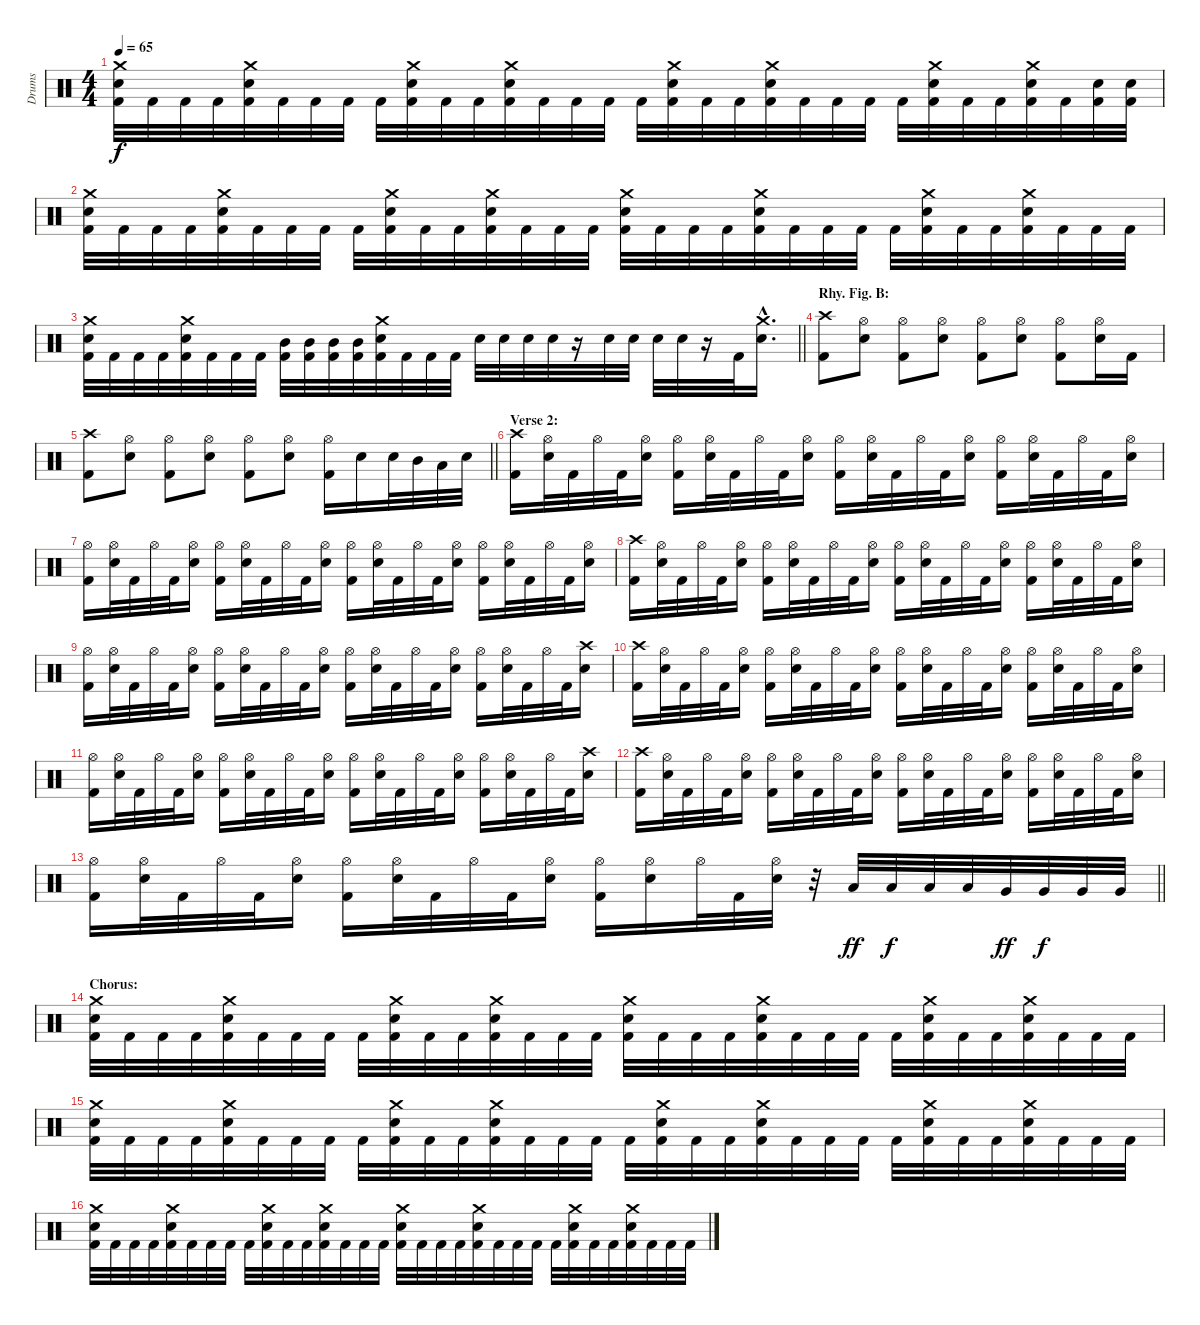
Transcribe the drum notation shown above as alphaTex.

\track ("Drums" "Drums") {instrument percussion}
\staff {score}
\articulation defaults
\ts (4 4)
\tempo 65
\clef neutral
\ks c
("Crash medium (hit)" "Snare (hit) 2" "Kick (hit) 2").32{dy f} "Kick (hit) 2".32 "Kick (hit) 2".32 "Kick (hit) 2".32 ("Crash medium (hit)" "Snare (hit) 2" "Kick (hit) 2").32 "Kick (hit) 2".32 "Kick (hit) 2".32 "Kick (hit) 2".32 "Kick (hit) 2".32 ("Crash medium (hit)" "Snare (hit) 2" "Kick (hit) 2").32 "Kick (hit) 2".32 "Kick (hit) 2".32 ("Crash medium (hit)" "Snare (hit) 2" "Kick (hit) 2").32 "Kick (hit) 2".32 "Kick (hit) 2".32 "Kick (hit) 2".32 "Kick (hit) 2".32 ("Crash medium (hit)" "Snare (hit) 2" "Kick (hit) 2").32 "Kick (hit) 2".32 "Kick (hit) 2".32 ("Crash medium (hit)" "Snare (hit) 2" "Kick (hit) 2").32 "Kick (hit) 2".32 "Kick (hit) 2".32 "Kick (hit) 2".32 "Kick (hit) 2".32 ("Crash medium (hit)" "Snare (hit) 2" "Kick (hit) 2").32 "Kick (hit) 2".32 "Kick (hit) 2".32 ("Crash medium (hit)" "Snare (hit) 2" "Kick (hit) 2").32 "Kick (hit) 2".32 ("Snare (hit) 2" "Kick (hit) 2").32 ("Snare (hit) 2" "Kick (hit) 2").32 |
("Crash medium (hit)" "Snare (hit) 2" "Kick (hit) 2").32 "Kick (hit) 2".32 "Kick (hit) 2".32 "Kick (hit) 2".32 ("Crash medium (hit)" "Snare (hit) 2" "Kick (hit) 2").32 "Kick (hit) 2".32 "Kick (hit) 2".32 "Kick (hit) 2".32 "Kick (hit) 2".32 ("Crash medium (hit)" "Snare (hit) 2" "Kick (hit) 2").32 "Kick (hit) 2".32 "Kick (hit) 2".32 ("Crash medium (hit)" "Snare (hit) 2" "Kick (hit) 2").32 "Kick (hit) 2".32 "Kick (hit) 2".32 "Kick (hit) 2".32 ("Crash medium (hit)" "Snare (hit) 2" "Kick (hit) 2").32 "Kick (hit) 2".32 "Kick (hit) 2".32 "Kick (hit) 2".32 ("Crash medium (hit)" "Snare (hit) 2" "Kick (hit) 2").32 "Kick (hit) 2".32 "Kick (hit) 2".32 "Kick (hit) 2".32 "Kick (hit) 2".32 ("Crash medium (hit)" "Snare (hit) 2" "Kick (hit) 2").32 "Kick (hit) 2".32 "Kick (hit) 2".32 ("Crash medium (hit)" "Snare (hit) 2" "Kick (hit) 2").32 "Kick (hit) 2".32 "Kick (hit) 2".32 "Kick (hit) 2".32 |
\barLineRight lightlight
("Crash medium (hit)" "Snare (hit) 2" "Kick (hit) 2").32 "Kick (hit) 2".32 "Kick (hit) 2".32 "Kick (hit) 2".32 ("Crash medium (hit)" "Snare (hit) 2" "Kick (hit) 2").32 "Kick (hit) 2".32 "Kick (hit) 2".32 "Kick (hit) 2".32 ("Mid Tom (hit)" "Kick (hit) 2").32 ("Mid Tom (hit)" "Kick (hit) 2").32 ("Mid Tom (hit)" "Kick (hit) 2").32 ("Mid Tom (hit)" "Kick (hit) 2").32 ("Crash medium (hit)" "Snare (hit) 2" "Kick (hit) 2").32 "Kick (hit) 2".32 "Kick (hit) 2".32 "Kick (hit) 2".32 "Snare (hit) 2".32 "Snare (hit) 2".32 "Snare (hit) 2".32 "Snare (hit) 2".32 r.16 "Snare (hit) 2".32 "Snare (hit) 2".32 "Snare (hit) 2".32 "Snare (hit) 2".32 r.16 "Kick (hit) 2".32 ("Crash medium (hit)"{hac} "Snare (hit) 2"{hac}).16{d} |
\section ("" "Rhy. Fig. B:")
("Crash high (hit)" "Kick (hit) 2").8 ("Hi-Hat (open)" "Snare (hit) 2").8 ("Hi-Hat (open)" "Kick (hit) 2").8 ("Hi-Hat (open)" "Snare (hit) 2").8 ("Hi-Hat (open)" "Kick (hit) 2").8 ("Hi-Hat (open)" "Snare (hit) 2").8 ("Hi-Hat (open)" "Kick (hit) 2").8 ("Hi-Hat (open)" "Snare (hit) 2").16 "Kick (hit) 2".16 |
\barLineRight lightlight
("Crash high (hit)" "Kick (hit) 2").8 ("Hi-Hat (open)" "Snare (hit) 2").8 ("Hi-Hat (open)" "Kick (hit) 2").8 ("Hi-Hat (open)" "Snare (hit) 2").8 ("Hi-Hat (open)" "Kick (hit) 2").8 ("Hi-Hat (open)" "Snare (hit) 2").8 ("Hi-Hat (open)" "Kick (hit) 2").16 "Snare (hit) 2".16 "Snare (hit) 2".32 "Mid Tom (hit)".32 "Low Tom (hit)".32 "Snare (hit) 2".32 |
\section ("" "Verse 2:")
("Crash high (hit)" "Kick (hit) 2").16 ("Hi-Hat (open)" "Snare (hit) 2").32 "Kick (hit) 2".32 "Hi-Hat (open)".32 "Kick (hit) 2".32 ("Hi-Hat (open)" "Snare (hit) 2").16 ("Hi-Hat (open)" "Kick (hit) 2").16 ("Hi-Hat (open)" "Snare (hit) 2").32 "Kick (hit) 2".32 "Hi-Hat (open)".32 "Kick (hit) 2".32 ("Hi-Hat (open)" "Snare (hit) 2").16 ("Hi-Hat (open)" "Kick (hit) 2").16 ("Hi-Hat (open)" "Snare (hit) 2").32 "Kick (hit) 2".32 "Hi-Hat (open)".32 "Kick (hit) 2".32 ("Hi-Hat (open)" "Snare (hit) 2").16 ("Hi-Hat (open)" "Kick (hit) 2").16 ("Hi-Hat (open)" "Snare (hit) 2").32 "Kick (hit) 2".32 "Hi-Hat (open)".32 "Kick (hit) 2".32 ("Hi-Hat (open)" "Snare (hit) 2").16 |
("Hi-Hat (open)" "Kick (hit) 2").16 ("Hi-Hat (open)" "Snare (hit) 2").32 "Kick (hit) 2".32 "Hi-Hat (open)".32 "Kick (hit) 2".32 ("Hi-Hat (open)" "Snare (hit) 2").16 ("Hi-Hat (open)" "Kick (hit) 2").16 ("Hi-Hat (open)" "Snare (hit) 2").32 "Kick (hit) 2".32 "Hi-Hat (open)".32 "Kick (hit) 2".32 ("Hi-Hat (open)" "Snare (hit) 2").16 ("Hi-Hat (open)" "Kick (hit) 2").16 ("Hi-Hat (open)" "Snare (hit) 2").32 "Kick (hit) 2".32 "Hi-Hat (open)".32 "Kick (hit) 2".32 ("Hi-Hat (open)" "Snare (hit) 2").16 ("Hi-Hat (open)" "Kick (hit) 2").16 ("Hi-Hat (open)" "Snare (hit) 2").32 "Kick (hit) 2".32 "Hi-Hat (open)".32 "Kick (hit) 2".32 ("Hi-Hat (open)" "Snare (hit) 2").16 |
("Crash high (hit)" "Kick (hit) 2").16 ("Hi-Hat (open)" "Snare (hit) 2").32 "Kick (hit) 2".32 "Hi-Hat (open)".32 "Kick (hit) 2".32 ("Hi-Hat (open)" "Snare (hit) 2").16 ("Hi-Hat (open)" "Kick (hit) 2").16 ("Hi-Hat (open)" "Snare (hit) 2").32 "Kick (hit) 2".32 "Hi-Hat (open)".32 "Kick (hit) 2".32 ("Hi-Hat (open)" "Snare (hit) 2").16 ("Hi-Hat (open)" "Kick (hit) 2").16 ("Hi-Hat (open)" "Snare (hit) 2").32 "Kick (hit) 2".32 "Hi-Hat (open)".32 "Kick (hit) 2".32 ("Hi-Hat (open)" "Snare (hit) 2").16 ("Hi-Hat (open)" "Kick (hit) 2").16 ("Hi-Hat (open)" "Snare (hit) 2").32 "Kick (hit) 2".32 "Hi-Hat (open)".32 "Kick (hit) 2".32 ("Hi-Hat (open)" "Snare (hit) 2").16 |
("Hi-Hat (open)" "Kick (hit) 2").16 ("Hi-Hat (open)" "Snare (hit) 2").32 "Kick (hit) 2".32 "Hi-Hat (open)".32 "Kick (hit) 2".32 ("Hi-Hat (open)" "Snare (hit) 2").16 ("Hi-Hat (open)" "Kick (hit) 2").16 ("Hi-Hat (open)" "Snare (hit) 2").32 "Kick (hit) 2".32 "Hi-Hat (open)".32 "Kick (hit) 2".32 ("Hi-Hat (open)" "Snare (hit) 2").16 ("Hi-Hat (open)" "Kick (hit) 2").16 ("Hi-Hat (open)" "Snare (hit) 2").32 "Kick (hit) 2".32 "Hi-Hat (open)".32 "Kick (hit) 2".32 ("Hi-Hat (open)" "Snare (hit) 2").16 ("Hi-Hat (open)" "Kick (hit) 2").16 ("Hi-Hat (open)" "Snare (hit) 2").32 "Kick (hit) 2".32 "Hi-Hat (open)".32 "Kick (hit) 2".32 ("Crash high (hit)" "Snare (hit) 2").16 |
("Crash high (hit)" "Kick (hit) 2").16 ("Hi-Hat (open)" "Snare (hit) 2").32 "Kick (hit) 2".32 "Hi-Hat (open)".32 "Kick (hit) 2".32 ("Hi-Hat (open)" "Snare (hit) 2").16 ("Hi-Hat (open)" "Kick (hit) 2").16 ("Hi-Hat (open)" "Snare (hit) 2").32 "Kick (hit) 2".32 "Hi-Hat (open)".32 "Kick (hit) 2".32 ("Hi-Hat (open)" "Snare (hit) 2").16 ("Hi-Hat (open)" "Kick (hit) 2").16 ("Hi-Hat (open)" "Snare (hit) 2").32 "Kick (hit) 2".32 "Hi-Hat (open)".32 "Kick (hit) 2".32 ("Hi-Hat (open)" "Snare (hit) 2").16 ("Hi-Hat (open)" "Kick (hit) 2").16 ("Hi-Hat (open)" "Snare (hit) 2").32 "Kick (hit) 2".32 "Hi-Hat (open)".32 "Kick (hit) 2".32 ("Hi-Hat (open)" "Snare (hit) 2").16 |
("Hi-Hat (open)" "Kick (hit) 2").16 ("Hi-Hat (open)" "Snare (hit) 2").32 "Kick (hit) 2".32 "Hi-Hat (open)".32 "Kick (hit) 2".32 ("Hi-Hat (open)" "Snare (hit) 2").16 ("Hi-Hat (open)" "Kick (hit) 2").16 ("Hi-Hat (open)" "Snare (hit) 2").32 "Kick (hit) 2".32 "Hi-Hat (open)".32 "Kick (hit) 2".32 ("Hi-Hat (open)" "Snare (hit) 2").16 ("Hi-Hat (open)" "Kick (hit) 2").16 ("Hi-Hat (open)" "Snare (hit) 2").32 "Kick (hit) 2".32 "Hi-Hat (open)".32 "Kick (hit) 2".32 ("Hi-Hat (open)" "Snare (hit) 2").16 ("Hi-Hat (open)" "Kick (hit) 2").16 ("Hi-Hat (open)" "Snare (hit) 2").32 "Kick (hit) 2".32 "Hi-Hat (open)".32 "Kick (hit) 2".32 ("Crash high (hit)" "Snare (hit) 2").16 |
("Crash high (hit)" "Kick (hit) 2").16 ("Hi-Hat (open)" "Snare (hit) 2").32 "Kick (hit) 2".32 "Hi-Hat (open)".32 "Kick (hit) 2".32 ("Hi-Hat (open)" "Snare (hit) 2").16 ("Hi-Hat (open)" "Kick (hit) 2").16 ("Hi-Hat (open)" "Snare (hit) 2").32 "Kick (hit) 2".32 "Hi-Hat (open)".32 "Kick (hit) 2".32 ("Hi-Hat (open)" "Snare (hit) 2").16 ("Hi-Hat (open)" "Kick (hit) 2").16 ("Hi-Hat (open)" "Snare (hit) 2").32 "Kick (hit) 2".32 "Hi-Hat (open)".32 "Kick (hit) 2".32 ("Hi-Hat (open)" "Snare (hit) 2").16 ("Hi-Hat (open)" "Kick (hit) 2").16 ("Hi-Hat (open)" "Snare (hit) 2").32 "Kick (hit) 2".32 "Hi-Hat (open)".32 "Kick (hit) 2".32 ("Hi-Hat (open)" "Snare (hit) 2").16 |
\barLineRight lightlight
("Hi-Hat (open)" "Kick (hit) 2").16 ("Hi-Hat (open)" "Snare (hit) 2").32 "Kick (hit) 2".32 "Hi-Hat (open)".32 "Kick (hit) 2".32 ("Hi-Hat (open)" "Snare (hit) 2").16 ("Hi-Hat (open)" "Kick (hit) 2").16 ("Hi-Hat (open)" "Snare (hit) 2").32 "Kick (hit) 2".32 "Hi-Hat (open)".32 "Kick (hit) 2".32 ("Hi-Hat (open)" "Snare (hit) 2").16 ("Hi-Hat (open)" "Kick (hit) 2").16 ("Hi-Hat (open)" "Snare (hit) 2").16 "Hi-Hat (open)".32 "Kick (hit) 2".32 ("Hi-Hat (open)" "Snare (hit) 2").32 r.32 "Low Tom (hit)".32{dy ff} "Low Tom (hit)".32{dy f} "Low Tom (hit)".32 "Low Tom (hit)".32 "Very Low Tom (hit)".32{dy ff} "Very Low Tom (hit)".32{dy f} "Very Low Tom (hit)".32 "Very Low Tom (hit)".32 |
\section ("" "Chorus:")
("Crash medium (hit)" "Snare (hit) 2" "Kick (hit) 2").32 "Kick (hit) 2".32 "Kick (hit) 2".32 "Kick (hit) 2".32 ("Crash medium (hit)" "Snare (hit) 2" "Kick (hit) 2").32 "Kick (hit) 2".32 "Kick (hit) 2".32 "Kick (hit) 2".32 "Kick (hit) 2".32 ("Crash medium (hit)" "Snare (hit) 2" "Kick (hit) 2").32 "Kick (hit) 2".32 "Kick (hit) 2".32 ("Crash medium (hit)" "Snare (hit) 2" "Kick (hit) 2").32 "Kick (hit) 2".32 "Kick (hit) 2".32 "Kick (hit) 2".32 ("Crash medium (hit)" "Snare (hit) 2" "Kick (hit) 2").32 "Kick (hit) 2".32 "Kick (hit) 2".32 "Kick (hit) 2".32 ("Crash medium (hit)" "Snare (hit) 2" "Kick (hit) 2").32 "Kick (hit) 2".32 "Kick (hit) 2".32 "Kick (hit) 2".32 "Kick (hit) 2".32 ("Crash medium (hit)" "Snare (hit) 2" "Kick (hit) 2").32 "Kick (hit) 2".32 "Kick (hit) 2".32 ("Crash medium (hit)" "Snare (hit) 2" "Kick (hit) 2").32 "Kick (hit) 2".32 "Kick (hit) 2".32 "Kick (hit) 2".32 |
("Crash medium (hit)" "Snare (hit) 2" "Kick (hit) 2").32 "Kick (hit) 2".32 "Kick (hit) 2".32 "Kick (hit) 2".32 ("Crash medium (hit)" "Snare (hit) 2" "Kick (hit) 2").32 "Kick (hit) 2".32 "Kick (hit) 2".32 "Kick (hit) 2".32 "Kick (hit) 2".32 ("Crash medium (hit)" "Snare (hit) 2" "Kick (hit) 2").32 "Kick (hit) 2".32 "Kick (hit) 2".32 ("Crash medium (hit)" "Snare (hit) 2" "Kick (hit) 2").32 "Kick (hit) 2".32 "Kick (hit) 2".32 "Kick (hit) 2".32 "Kick (hit) 2".32 ("Crash medium (hit)" "Snare (hit) 2" "Kick (hit) 2").32 "Kick (hit) 2".32 "Kick (hit) 2".32 ("Crash medium (hit)" "Snare (hit) 2" "Kick (hit) 2").32 "Kick (hit) 2".32 "Kick (hit) 2".32 "Kick (hit) 2".32 "Kick (hit) 2".32 ("Crash medium (hit)" "Snare (hit) 2" "Kick (hit) 2").32 "Kick (hit) 2".32 "Kick (hit) 2".32 ("Crash medium (hit)" "Snare (hit) 2" "Kick (hit) 2").32 "Kick (hit) 2".32 "Kick (hit) 2".32 "Kick (hit) 2".32 |
("Crash medium (hit)" "Snare (hit) 2" "Kick (hit) 2").32 "Kick (hit) 2".32 "Kick (hit) 2".32 "Kick (hit) 2".32 ("Crash medium (hit)" "Snare (hit) 2" "Kick (hit) 2").32 "Kick (hit) 2".32 "Kick (hit) 2".32 "Kick (hit) 2".32 "Kick (hit) 2".32 ("Crash medium (hit)" "Snare (hit) 2" "Kick (hit) 2").32 "Kick (hit) 2".32 "Kick (hit) 2".32 ("Crash medium (hit)" "Snare (hit) 2" "Kick (hit) 2").32 "Kick (hit) 2".32 "Kick (hit) 2".32 "Kick (hit) 2".32 ("Crash medium (hit)" "Snare (hit) 2" "Kick (hit) 2").32 "Kick (hit) 2".32 "Kick (hit) 2".32 "Kick (hit) 2".32 ("Crash medium (hit)" "Snare (hit) 2" "Kick (hit) 2").32 "Kick (hit) 2".32 "Kick (hit) 2".32 "Kick (hit) 2".32 "Kick (hit) 2".32 ("Crash medium (hit)" "Snare (hit) 2" "Kick (hit) 2").32 "Kick (hit) 2".32 "Kick (hit) 2".32 ("Crash medium (hit)" "Snare (hit) 2" "Kick (hit) 2").32 "Kick (hit) 2".32 "Kick (hit) 2".32 "Kick (hit) 2".32
